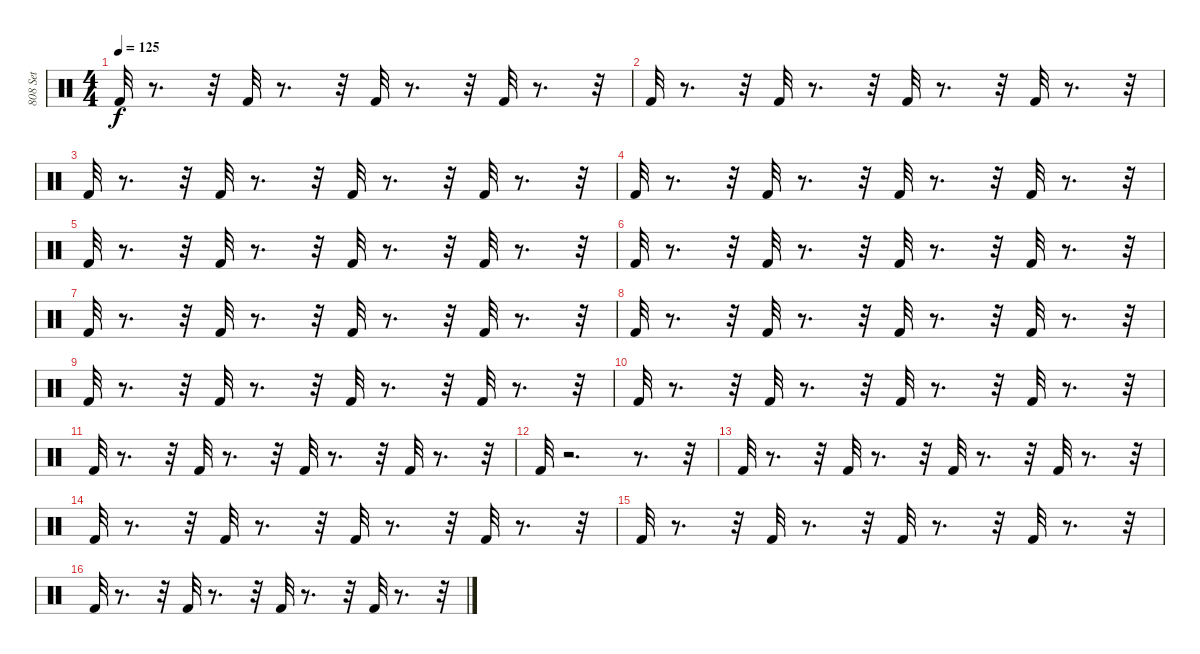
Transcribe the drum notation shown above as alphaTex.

\track ("808 Set" "808 Set") {instrument percussion}
\staff {score}
\articulation defaults
\ts (4 4)
\tempo 125
\clef neutral
\ks c "Kick (hit) 2".32{dy f}
r.8{d} r.32 "Kick (hit) 2".32 r.8{d} r.32 "Kick (hit) 2".32 r.8{d} r.32 "Kick (hit) 2".32 r.8{d} r.32 |
"Kick (hit) 2".32 r.8{d} r.32 "Kick (hit) 2".32 r.8{d} r.32 "Kick (hit) 2".32 r.8{d} r.32 "Kick (hit) 2".32 r.8{d} r.32 |
"Kick (hit) 2".32 r.8{d} r.32 "Kick (hit) 2".32 r.8{d} r.32 "Kick (hit) 2".32 r.8{d} r.32 "Kick (hit) 2".32 r.8{d} r.32 |
"Kick (hit) 2".32 r.8{d} r.32 "Kick (hit) 2".32 r.8{d} r.32 "Kick (hit) 2".32 r.8{d} r.32 "Kick (hit) 2".32 r.8{d} r.32 |
"Kick (hit) 2".32 r.8{d} r.32 "Kick (hit) 2".32 r.8{d} r.32 "Kick (hit) 2".32 r.8{d} r.32 "Kick (hit) 2".32 r.8{d} r.32 |
"Kick (hit) 2".32 r.8{d} r.32 "Kick (hit) 2".32 r.8{d} r.32 "Kick (hit) 2".32 r.8{d} r.32 "Kick (hit) 2".32 r.8{d} r.32 |
"Kick (hit) 2".32 r.8{d} r.32 "Kick (hit) 2".32 r.8{d} r.32 "Kick (hit) 2".32 r.8{d} r.32 "Kick (hit) 2".32 r.8{d} r.32 |
"Kick (hit) 2".32 r.8{d} r.32 "Kick (hit) 2".32 r.8{d} r.32 "Kick (hit) 2".32 r.8{d} r.32 "Kick (hit) 2".32 r.8{d} r.32 |
"Kick (hit) 2".32 r.8{d} r.32 "Kick (hit) 2".32 r.8{d} r.32 "Kick (hit) 2".32 r.8{d} r.32 "Kick (hit) 2".32 r.8{d} r.32 |
"Kick (hit) 2".32 r.8{d} r.32 "Kick (hit) 2".32 r.8{d} r.32 "Kick (hit) 2".32 r.8{d} r.32 "Kick (hit) 2".32 r.8{d} r.32 |
"Kick (hit) 2".32 r.8{d} r.32 "Kick (hit) 2".32 r.8{d} r.32 "Kick (hit) 2".32 r.8{d} r.32 "Kick (hit) 2".32 r.8{d} r.32 |
"Kick (hit) 2".32 r.2{d} r.8{d} r.32 |
"Kick (hit) 2".32 r.8{d} r.32 "Kick (hit) 2".32 r.8{d} r.32 "Kick (hit) 2".32 r.8{d} r.32 "Kick (hit) 2".32 r.8{d} r.32 |
"Kick (hit) 2".32 r.8{d} r.32 "Kick (hit) 2".32 r.8{d} r.32 "Kick (hit) 2".32 r.8{d} r.32 "Kick (hit) 2".32 r.8{d} r.32 |
"Kick (hit) 2".32 r.8{d} r.32 "Kick (hit) 2".32 r.8{d} r.32 "Kick (hit) 2".32 r.8{d} r.32 "Kick (hit) 2".32 r.8{d} r.32 |
"Kick (hit) 2".32 r.8{d} r.32 "Kick (hit) 2".32 r.8{d} r.32 "Kick (hit) 2".32 r.8{d} r.32 "Kick (hit) 2".32 r.8{d} r.32
